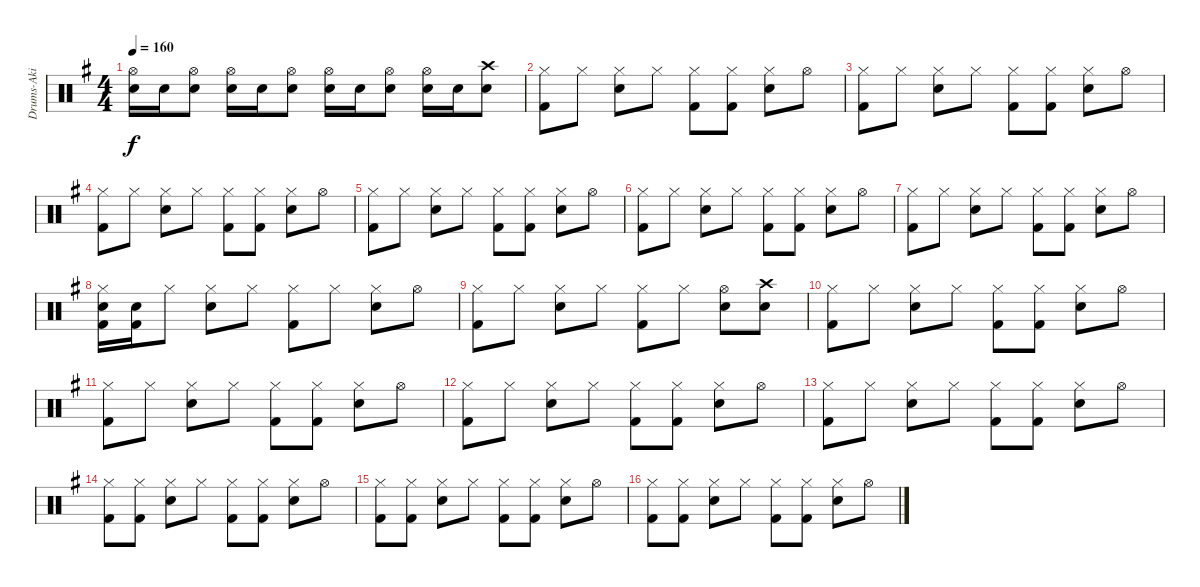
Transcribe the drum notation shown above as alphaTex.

\track ("Drums-Aki" "Drums-Aki") {instrument percussion}
\staff {score}
\articulation defaults
\ts (4 4)
\tempo 160
\clef neutral
\ks g
("Hi-Hat (open)" "Electric Snare (hit)").16{dy f} "Electric Snare (hit)".16 ("Hi-Hat (open)" "Electric Snare (hit)").8 ("Hi-Hat (open)" "Electric Snare (hit)").16 "Electric Snare (hit)".16 ("Hi-Hat (open)" "Electric Snare (hit)").8 ("Hi-Hat (open)" "Electric Snare (hit)").16 "Electric Snare (hit)".16 ("Hi-Hat (open)" "Electric Snare (hit)").8 ("Hi-Hat (open)" "Electric Snare (hit)").16 "Electric Snare (hit)".16 ("Crash high (hit)" "Electric Snare (hit)").8 |
("Hi-Hat (closed)" "Kick (hit) 2").8 "Hi-Hat (closed)".8 ("Hi-Hat (closed)" "Electric Snare (hit)").8 "Hi-Hat (closed)".8 ("Hi-Hat (closed)" "Kick (hit) 2").8 ("Hi-Hat (closed)" "Kick (hit) 2").8 ("Hi-Hat (closed)" "Electric Snare (hit)").8 "Hi-Hat (open)".8 |
("Hi-Hat (closed)" "Kick (hit) 2").8 "Hi-Hat (closed)".8 ("Hi-Hat (closed)" "Electric Snare (hit)").8 "Hi-Hat (closed)".8 ("Hi-Hat (closed)" "Kick (hit) 2").8 ("Hi-Hat (closed)" "Kick (hit) 2").8 ("Hi-Hat (closed)" "Electric Snare (hit)").8 "Hi-Hat (open)".8 |
("Hi-Hat (closed)" "Kick (hit) 2").8 "Hi-Hat (closed)".8 ("Hi-Hat (closed)" "Electric Snare (hit)").8 "Hi-Hat (closed)".8 ("Hi-Hat (closed)" "Kick (hit) 2").8 ("Hi-Hat (closed)" "Kick (hit) 2").8 ("Hi-Hat (closed)" "Electric Snare (hit)").8 "Hi-Hat (open)".8 |
("Hi-Hat (closed)" "Kick (hit) 2").8 "Hi-Hat (closed)".8 ("Hi-Hat (closed)" "Electric Snare (hit)").8 "Hi-Hat (closed)".8 ("Hi-Hat (closed)" "Kick (hit) 2").8 ("Hi-Hat (closed)" "Kick (hit) 2").8 ("Hi-Hat (closed)" "Electric Snare (hit)").8 "Hi-Hat (open)".8 |
("Hi-Hat (closed)" "Kick (hit) 2").8 "Hi-Hat (closed)".8 ("Hi-Hat (closed)" "Electric Snare (hit)").8 "Hi-Hat (closed)".8 ("Hi-Hat (closed)" "Kick (hit) 2").8 ("Hi-Hat (closed)" "Kick (hit) 2").8 ("Hi-Hat (closed)" "Electric Snare (hit)").8 "Hi-Hat (open)".8 |
("Hi-Hat (closed)" "Kick (hit) 2").8 "Hi-Hat (closed)".8 ("Hi-Hat (closed)" "Electric Snare (hit)").8 "Hi-Hat (closed)".8 ("Hi-Hat (closed)" "Kick (hit) 2").8 ("Hi-Hat (closed)" "Kick (hit) 2").8 ("Hi-Hat (closed)" "Electric Snare (hit)").8 "Hi-Hat (open)".8 |
("Hi-Hat (closed)" "Electric Snare (hit)" "Kick (hit) 2").16 ("Electric Snare (hit)" "Kick (hit) 2").16 "Hi-Hat (closed)".8 ("Hi-Hat (closed)" "Electric Snare (hit)").8 "Hi-Hat (closed)".8 ("Hi-Hat (closed)" "Kick (hit) 2").8 "Hi-Hat (closed)".8 ("Hi-Hat (closed)" "Electric Snare (hit)").8 "Hi-Hat (open)".8 |
("Hi-Hat (closed)" "Kick (hit) 2").8 "Hi-Hat (closed)".8 ("Hi-Hat (closed)" "Electric Snare (hit)").8 "Hi-Hat (closed)".8 ("Hi-Hat (closed)" "Kick (hit) 2").8 "Hi-Hat (closed)".8 ("Hi-Hat (open)" "Electric Snare (hit)").8 ("Crash high (hit)" "Electric Snare (hit)").8 |
("Hi-Hat (closed)" "Kick (hit) 2").8 "Hi-Hat (closed)".8 ("Hi-Hat (closed)" "Electric Snare (hit)").8 "Hi-Hat (closed)".8 ("Hi-Hat (closed)" "Kick (hit) 2").8 ("Hi-Hat (closed)" "Kick (hit) 2").8 ("Hi-Hat (closed)" "Electric Snare (hit)").8 "Hi-Hat (open)".8 |
("Hi-Hat (closed)" "Kick (hit) 2").8 "Hi-Hat (closed)".8 ("Hi-Hat (closed)" "Electric Snare (hit)").8 "Hi-Hat (closed)".8 ("Hi-Hat (closed)" "Kick (hit) 2").8 ("Hi-Hat (closed)" "Kick (hit) 2").8 ("Hi-Hat (closed)" "Electric Snare (hit)").8 "Hi-Hat (open)".8 |
("Hi-Hat (closed)" "Kick (hit) 2").8 "Hi-Hat (closed)".8 ("Hi-Hat (closed)" "Electric Snare (hit)").8 "Hi-Hat (closed)".8 ("Hi-Hat (closed)" "Kick (hit) 2").8 ("Hi-Hat (closed)" "Kick (hit) 2").8 ("Hi-Hat (closed)" "Electric Snare (hit)").8 "Hi-Hat (open)".8 |
("Hi-Hat (closed)" "Kick (hit) 2").8 "Hi-Hat (closed)".8 ("Hi-Hat (closed)" "Electric Snare (hit)").8 "Hi-Hat (closed)".8 ("Hi-Hat (closed)" "Kick (hit) 2").8 ("Hi-Hat (closed)" "Kick (hit) 2").8 ("Hi-Hat (closed)" "Electric Snare (hit)").8 "Hi-Hat (open)".8 |
("Hi-Hat (closed)" "Kick (hit) 2").8 ("Hi-Hat (closed)" "Kick (hit) 2").8 ("Hi-Hat (closed)" "Electric Snare (hit)").8 "Hi-Hat (closed)".8 ("Hi-Hat (closed)" "Kick (hit) 2").8 ("Hi-Hat (closed)" "Kick (hit) 2").8 ("Hi-Hat (closed)" "Electric Snare (hit)").8 "Hi-Hat (open)".8 |
("Hi-Hat (closed)" "Kick (hit) 2").8 ("Hi-Hat (closed)" "Kick (hit) 2").8 ("Hi-Hat (closed)" "Electric Snare (hit)").8 "Hi-Hat (closed)".8 ("Hi-Hat (closed)" "Kick (hit) 2").8 ("Hi-Hat (closed)" "Kick (hit) 2").8 ("Hi-Hat (closed)" "Electric Snare (hit)").8 "Hi-Hat (open)".8 |
("Hi-Hat (closed)" "Kick (hit) 2").8 ("Hi-Hat (closed)" "Kick (hit) 2").8 ("Hi-Hat (closed)" "Electric Snare (hit)").8 "Hi-Hat (closed)".8 ("Hi-Hat (closed)" "Kick (hit) 2").8 ("Hi-Hat (closed)" "Kick (hit) 2").8 ("Hi-Hat (closed)" "Electric Snare (hit)").8 "Hi-Hat (open)".8
